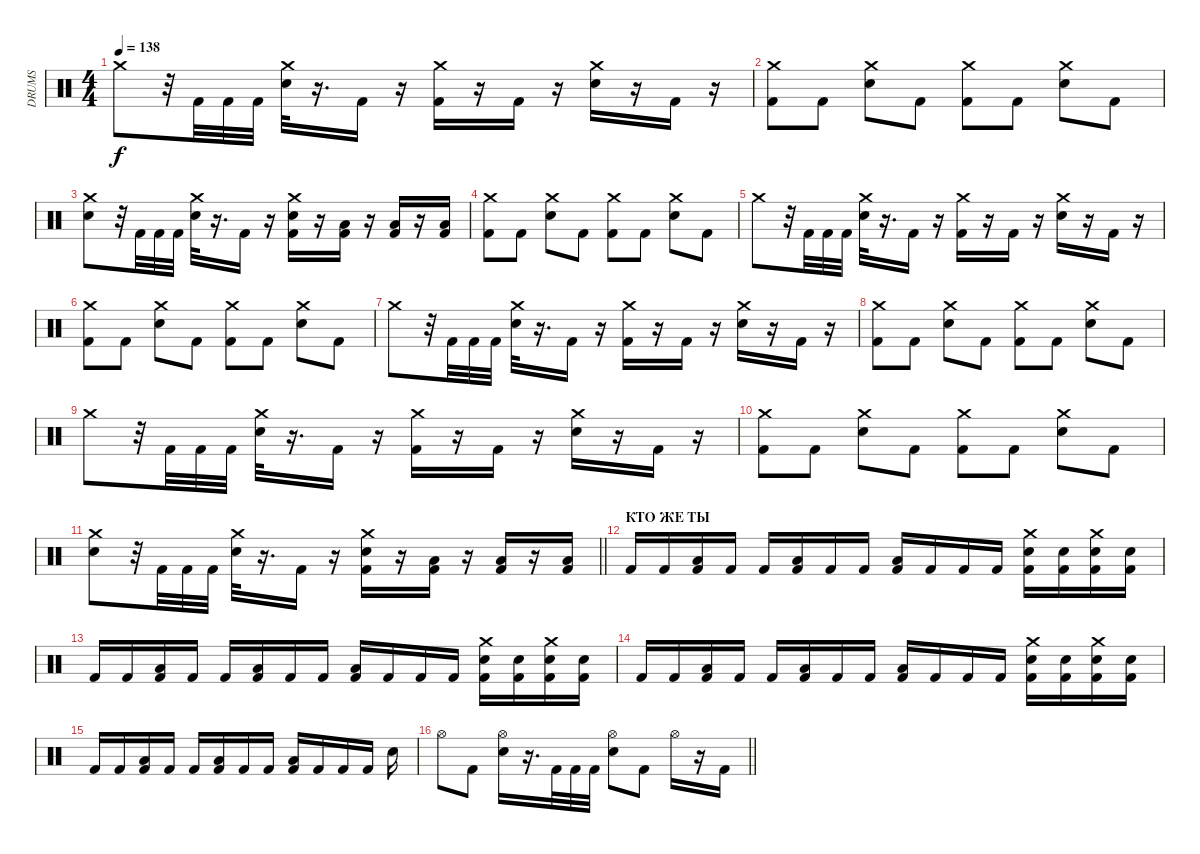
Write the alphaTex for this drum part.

\track ("DRUMS" "DRUMS") {instrument percussion}
\staff {score}
\articulation defaults
\ts (4 4)
\tempo 138
\clef neutral
\ks c "Crash medium (hit)".8{dy f}
r.32 "Kick (hit) 2".32 "Kick (hit) 2".32 "Kick (hit) 2".32 ("Crash medium (hit)" "Electric Snare (hit)").32 r.16{d} "Kick (hit) 2".16 r.16 ("Crash medium (hit)" "Kick (hit) 2").16 r.16 "Kick (hit) 2".16 r.16 ("Crash medium (hit)" "Electric Snare (hit)").16 r.16 "Kick (hit) 2".16 r.16 |
("Crash medium (hit)" "Kick (hit) 2").8 "Kick (hit) 2".8 ("Crash medium (hit)" "Electric Snare (hit)").8 "Kick (hit) 2".8 ("Crash medium (hit)" "Kick (hit) 2").8 "Kick (hit) 2".8 ("Crash medium (hit)" "Electric Snare (hit)").8 "Kick (hit) 2".8 |
("Crash medium (hit)" "Electric Snare (hit)").8 r.32 "Kick (hit) 2".32 "Kick (hit) 2".32 "Kick (hit) 2".32 ("Crash medium (hit)" "Electric Snare (hit)").32 r.16{d} "Kick (hit) 2".16 r.16 ("Crash medium (hit)" "Electric Snare (hit)" "Kick (hit) 2").16 r.16 ("Kick (hit) 2" "Low Floor Tom (hit)").16 r.16 ("Kick (hit) 2" "Low Floor Tom (hit)").16 r.16 ("Kick (hit) 2" "Low Floor Tom (hit)").16 |
("Crash medium (hit)" "Kick (hit) 2").8 "Kick (hit) 2".8 ("Crash medium (hit)" "Electric Snare (hit)").8 "Kick (hit) 2".8 ("Crash medium (hit)" "Kick (hit) 2").8 "Kick (hit) 2".8 ("Crash medium (hit)" "Electric Snare (hit)").8 "Kick (hit) 2".8 |
"Crash medium (hit)".8 r.32 "Kick (hit) 2".32 "Kick (hit) 2".32 "Kick (hit) 2".32 ("Crash medium (hit)" "Electric Snare (hit)").32 r.16{d} "Kick (hit) 2".16 r.16 ("Crash medium (hit)" "Kick (hit) 2").16 r.16 "Kick (hit) 2".16 r.16 ("Crash medium (hit)" "Electric Snare (hit)").16 r.16 "Kick (hit) 2".16 r.16 |
("Crash medium (hit)" "Kick (hit) 2").8 "Kick (hit) 2".8 ("Crash medium (hit)" "Electric Snare (hit)").8 "Kick (hit) 2".8 ("Crash medium (hit)" "Kick (hit) 2").8 "Kick (hit) 2".8 ("Crash medium (hit)" "Electric Snare (hit)").8 "Kick (hit) 2".8 |
"Crash medium (hit)".8 r.32 "Kick (hit) 2".32 "Kick (hit) 2".32 "Kick (hit) 2".32 ("Crash medium (hit)" "Electric Snare (hit)").32 r.16{d} "Kick (hit) 2".16 r.16 ("Crash medium (hit)" "Kick (hit) 2").16 r.16 "Kick (hit) 2".16 r.16 ("Crash medium (hit)" "Electric Snare (hit)").16 r.16 "Kick (hit) 2".16 r.16 |
("Crash medium (hit)" "Kick (hit) 2").8 "Kick (hit) 2".8 ("Crash medium (hit)" "Electric Snare (hit)").8 "Kick (hit) 2".8 ("Crash medium (hit)" "Kick (hit) 2").8 "Kick (hit) 2".8 ("Crash medium (hit)" "Electric Snare (hit)").8 "Kick (hit) 2".8 |
"Crash medium (hit)".8 r.32 "Kick (hit) 2".32 "Kick (hit) 2".32 "Kick (hit) 2".32 ("Crash medium (hit)" "Electric Snare (hit)").32 r.16{d} "Kick (hit) 2".16 r.16 ("Crash medium (hit)" "Kick (hit) 2").16 r.16 "Kick (hit) 2".16 r.16 ("Crash medium (hit)" "Electric Snare (hit)").16 r.16 "Kick (hit) 2".16 r.16 |
("Crash medium (hit)" "Kick (hit) 2").8 "Kick (hit) 2".8 ("Crash medium (hit)" "Electric Snare (hit)").8 "Kick (hit) 2".8 ("Crash medium (hit)" "Kick (hit) 2").8 "Kick (hit) 2".8 ("Crash medium (hit)" "Electric Snare (hit)").8 "Kick (hit) 2".8 |
\barLineRight lightlight
("Crash medium (hit)" "Electric Snare (hit)").8 r.32 "Kick (hit) 2".32 "Kick (hit) 2".32 "Kick (hit) 2".32 ("Crash medium (hit)" "Electric Snare (hit)").32 r.16{d} "Kick (hit) 2".16 r.16 ("Crash medium (hit)" "Electric Snare (hit)" "Kick (hit) 2").16 r.16 ("Kick (hit) 2" "Low Floor Tom (hit)").16 r.16 ("Kick (hit) 2" "Low Floor Tom (hit)").16 r.16 ("Kick (hit) 2" "Low Floor Tom (hit)").16 |
\section ("" "КТО ЖЕ ТЫ")
"Kick (hit) 2".16 "Kick (hit) 2".16 ("Low Floor Tom (hit)" "Kick (hit) 2").16 "Kick (hit) 2".16 "Kick (hit) 2".16 ("Low Floor Tom (hit)" "Kick (hit) 2").16 "Kick (hit) 2".16 "Kick (hit) 2".16 ("Low Floor Tom (hit)" "Kick (hit) 2").16 "Kick (hit) 2".16 "Kick (hit) 2".16 "Kick (hit) 2".16 ("Crash medium (hit)" "Electric Snare (hit)" "Kick (hit) 2").16 ("Electric Snare (hit)" "Kick (hit) 2").16 ("Crash medium (hit)" "Electric Snare (hit)" "Kick (hit) 2").16 ("Electric Snare (hit)" "Kick (hit) 2").16 |
"Kick (hit) 2".16 "Kick (hit) 2".16 ("Low Floor Tom (hit)" "Kick (hit) 2").16 "Kick (hit) 2".16 "Kick (hit) 2".16 ("Low Floor Tom (hit)" "Kick (hit) 2").16 "Kick (hit) 2".16 "Kick (hit) 2".16 ("Low Floor Tom (hit)" "Kick (hit) 2").16 "Kick (hit) 2".16 "Kick (hit) 2".16 "Kick (hit) 2".16 ("Crash medium (hit)" "Electric Snare (hit)" "Kick (hit) 2").16 ("Electric Snare (hit)" "Kick (hit) 2").16 ("Crash medium (hit)" "Electric Snare (hit)" "Kick (hit) 2").16 ("Electric Snare (hit)" "Kick (hit) 2").16 |
"Kick (hit) 2".16 "Kick (hit) 2".16 ("Low Floor Tom (hit)" "Kick (hit) 2").16 "Kick (hit) 2".16 "Kick (hit) 2".16 ("Low Floor Tom (hit)" "Kick (hit) 2").16 "Kick (hit) 2".16 "Kick (hit) 2".16 ("Low Floor Tom (hit)" "Kick (hit) 2").16 "Kick (hit) 2".16 "Kick (hit) 2".16 "Kick (hit) 2".16 ("Crash medium (hit)" "Electric Snare (hit)" "Kick (hit) 2").16 ("Electric Snare (hit)" "Kick (hit) 2").16 ("Crash medium (hit)" "Electric Snare (hit)" "Kick (hit) 2").16 ("Electric Snare (hit)" "Kick (hit) 2").16 |
"Kick (hit) 2".16 "Kick (hit) 2".16 ("Low Floor Tom (hit)" "Kick (hit) 2").16 "Kick (hit) 2".16 "Kick (hit) 2".16 ("Low Floor Tom (hit)" "Kick (hit) 2").16 "Kick (hit) 2".16 "Kick (hit) 2".16 ("Low Floor Tom (hit)" "Kick (hit) 2").16 "Kick (hit) 2".16 "Kick (hit) 2".16 "Kick (hit) 2".16 "Electric Snare (hit)".16 |
\barLineRight lightlight "Hi-Hat (open)".8 "Kick (hit) 2".8
("Hi-Hat (open)" "Electric Snare (hit)").16 r.16{d} "Kick (hit) 2".32 "Kick (hit) 2".32 "Kick (hit) 2".32 ("Hi-Hat (open)" "Electric Snare (hit)").8 "Kick (hit) 2".8 "Hi-Hat (open)".16 r.16 "Kick (hit) 2".16
